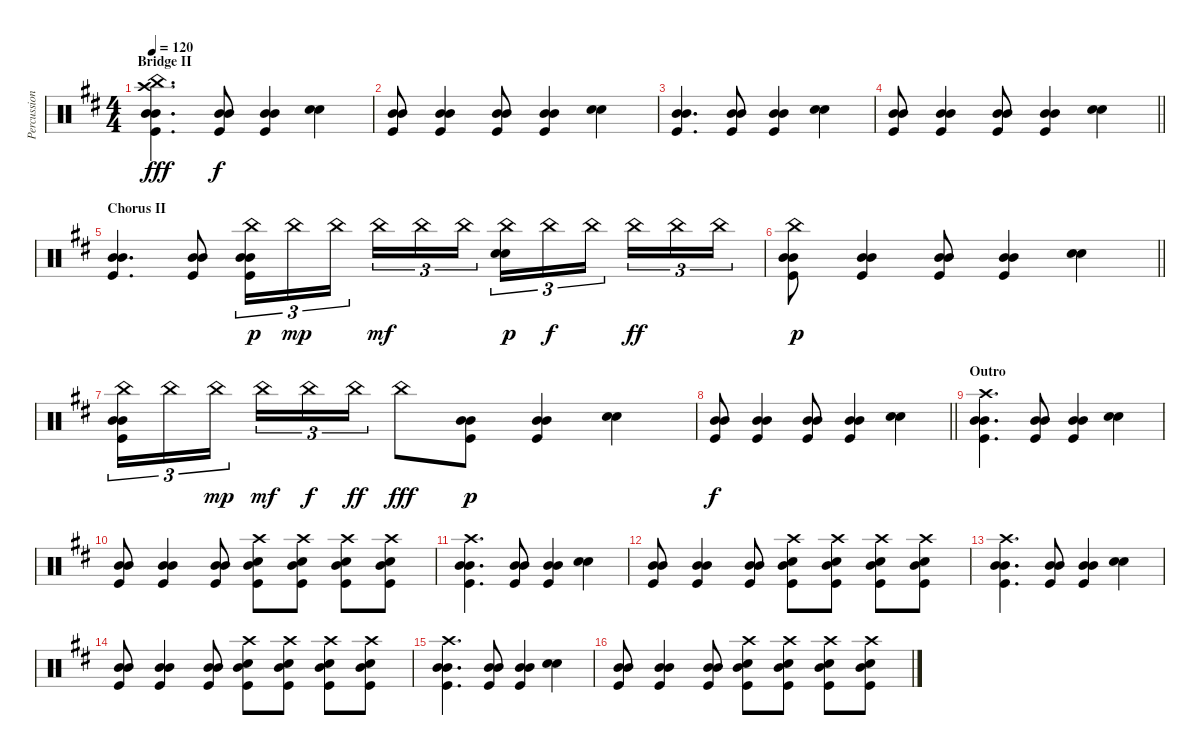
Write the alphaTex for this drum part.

\track ("Percussion" "Percussion") {instrument percussion}
\staff {score}
\articulation defaults
\ts (4 4)
\section ("" "Bridge II")
\tempo 120
\clef neutral
\ks bminor
("Crash high (hit)" "China (hit)" "Mid Tom (hit)" "Mid Tom (hit)" "Kick (hit)").4{d dy fff volume 8} ("Mid Tom (hit)" "Mid Tom (hit)" "Kick (hit)").8{dy f} ("Mid Tom (hit)" "Mid Tom (hit)" "Kick (hit)").4 ("Snare (hit) 2" "Snare (hit) 2").4 |
("Mid Tom (hit)" "Mid Tom (hit)" "Kick (hit)").8 ("Mid Tom (hit)" "Mid Tom (hit)" "Kick (hit)").4 ("Mid Tom (hit)" "Mid Tom (hit)" "Kick (hit)").8 ("Mid Tom (hit)" "Mid Tom (hit)" "Kick (hit)").4 ("Snare (hit) 2" "Snare (hit) 2").4 |
("Mid Tom (hit)" "Mid Tom (hit)" "Kick (hit)").4{d} ("Mid Tom (hit)" "Mid Tom (hit)" "Kick (hit)").8 ("Mid Tom (hit)" "Mid Tom (hit)" "Kick (hit)").4 ("Snare (hit) 2" "Snare (hit) 2").4 |
\barLineRight lightlight
("Mid Tom (hit)" "Mid Tom (hit)" "Kick (hit)").8 ("Mid Tom (hit)" "Mid Tom (hit)" "Kick (hit)").4 ("Mid Tom (hit)" "Mid Tom (hit)" "Kick (hit)").8 ("Mid Tom (hit)" "Mid Tom (hit)" "Kick (hit)").4 ("Snare (hit) 2" "Snare (hit) 2").4 |
\section ("" "Chorus II")
("Mid Tom (hit)" "Mid Tom (hit)" "Kick (hit)").4{d} ("Mid Tom (hit)" "Mid Tom (hit)" "Kick (hit)").8 ("China (hit)" "Mid Tom (hit)" "Mid Tom (hit)" "Kick (hit)").16{tu (3 2) dy p volume 15} "China (hit)".16{tu (3 2) dy mp} "China (hit)".16{tu (3 2) beam splitsecondary} "China (hit)".16{tu (3 2) dy mf} "China (hit)".16{tu (3 2)} "China (hit)".16{tu (3 2)} ("China (hit)" "Snare (hit) 2" "Snare (hit) 2").16{tu (3 2) dy p} "China (hit)".16{tu (3 2) dy f} "China (hit)".16{tu (3 2) beam splitsecondary} "China (hit)".16{tu (3 2) dy ff} "China (hit)".16{tu (3 2)} "China (hit)".16{tu (3 2)} |
\barLineRight lightlight
("China (hit)" "Mid Tom (hit)" "Mid Tom (hit)" "Kick (hit)").8{dy p} ("Mid Tom (hit)" "Mid Tom (hit)" "Kick (hit)").4 ("Mid Tom (hit)" "Mid Tom (hit)" "Kick (hit)").8 ("Mid Tom (hit)" "Mid Tom (hit)" "Kick (hit)").4 ("Snare (hit) 2" "Snare (hit) 2").4 |
("China (hit)" "Mid Tom (hit)" "Mid Tom (hit)" "Kick (hit)").16{tu (3 2) volume 16} "China (hit)".16{tu (3 2)} "China (hit)".16{tu (3 2) dy mp beam splitsecondary} "China (hit)".16{tu (3 2) dy mf} "China (hit)".16{tu (3 2) dy f} "China (hit)".16{tu (3 2) dy ff} "China (hit)".8{dy fff} ("Mid Tom (hit)" "Mid Tom (hit)" "Kick (hit)").8{dy p} ("Mid Tom (hit)" "Mid Tom (hit)" "Kick (hit)").4 ("Snare (hit) 2" "Snare (hit) 2").4 |
\barLineRight lightlight
("Mid Tom (hit)" "Mid Tom (hit)" "Kick (hit)").8{dy f volume 8} ("Mid Tom (hit)" "Mid Tom (hit)" "Kick (hit)").4 ("Mid Tom (hit)" "Mid Tom (hit)" "Kick (hit)").8 ("Mid Tom (hit)" "Mid Tom (hit)" "Kick (hit)").4 ("Snare (hit) 2" "Snare (hit) 2").4 |
\section ("" "Outro")
("Crash high (hit)" "Mid Tom (hit)" "Mid Tom (hit)" "Kick (hit)").4{d} ("Mid Tom (hit)" "Mid Tom (hit)" "Kick (hit)").8 ("Mid Tom (hit)" "Mid Tom (hit)" "Kick (hit)").4 ("Snare (hit) 2" "Snare (hit) 2").4 |
("Mid Tom (hit)" "Mid Tom (hit)" "Kick (hit)").8 ("Mid Tom (hit)" "Mid Tom (hit)" "Kick (hit)").4 ("Mid Tom (hit)" "Mid Tom (hit)" "Kick (hit)").8 ("Crash high (hit)" "Snare (hit) 2" "Mid Tom (hit)" "Kick (hit)").8 ("Crash high (hit)" "Snare (hit) 2" "Mid Tom (hit)" "Kick (hit)").8 ("Crash high (hit)" "Snare (hit) 2" "Mid Tom (hit)" "Kick (hit)").8 ("Crash high (hit)" "Snare (hit) 2" "Mid Tom (hit)" "Kick (hit)").8 |
("Crash high (hit)" "Mid Tom (hit)" "Mid Tom (hit)" "Kick (hit)").4{d} ("Mid Tom (hit)" "Mid Tom (hit)" "Kick (hit)").8 ("Mid Tom (hit)" "Mid Tom (hit)" "Kick (hit)").4 ("Snare (hit) 2" "Snare (hit) 2").4 |
("Mid Tom (hit)" "Mid Tom (hit)" "Kick (hit)").8 ("Mid Tom (hit)" "Mid Tom (hit)" "Kick (hit)").4 ("Mid Tom (hit)" "Mid Tom (hit)" "Kick (hit)").8 ("Crash high (hit)" "Snare (hit) 2" "Mid Tom (hit)" "Kick (hit)").8 ("Crash high (hit)" "Snare (hit) 2" "Mid Tom (hit)" "Kick (hit)").8 ("Crash high (hit)" "Snare (hit) 2" "Mid Tom (hit)" "Kick (hit)").8 ("Crash high (hit)" "Snare (hit) 2" "Mid Tom (hit)" "Kick (hit)").8 |
("Crash high (hit)" "Mid Tom (hit)" "Mid Tom (hit)" "Kick (hit)").4{d} ("Mid Tom (hit)" "Mid Tom (hit)" "Kick (hit)").8 ("Mid Tom (hit)" "Mid Tom (hit)" "Kick (hit)").4 ("Snare (hit) 2" "Snare (hit) 2").4 |
("Mid Tom (hit)" "Mid Tom (hit)" "Kick (hit)").8 ("Mid Tom (hit)" "Mid Tom (hit)" "Kick (hit)").4 ("Mid Tom (hit)" "Mid Tom (hit)" "Kick (hit)").8 ("Crash high (hit)" "Snare (hit) 2" "Mid Tom (hit)" "Kick (hit)").8 ("Crash high (hit)" "Snare (hit) 2" "Mid Tom (hit)" "Kick (hit)").8 ("Crash high (hit)" "Snare (hit) 2" "Mid Tom (hit)" "Kick (hit)").8 ("Crash high (hit)" "Snare (hit) 2" "Mid Tom (hit)" "Kick (hit)").8 |
("Crash high (hit)" "Mid Tom (hit)" "Mid Tom (hit)" "Kick (hit)").4{d} ("Mid Tom (hit)" "Mid Tom (hit)" "Kick (hit)").8 ("Mid Tom (hit)" "Mid Tom (hit)" "Kick (hit)").4 ("Snare (hit) 2" "Snare (hit) 2").4 |
("Mid Tom (hit)" "Mid Tom (hit)" "Kick (hit)").8 ("Mid Tom (hit)" "Mid Tom (hit)" "Kick (hit)").4 ("Mid Tom (hit)" "Mid Tom (hit)" "Kick (hit)").8 ("Crash high (hit)" "Snare (hit) 2" "Mid Tom (hit)" "Kick (hit)").8 ("Crash high (hit)" "Snare (hit) 2" "Mid Tom (hit)" "Kick (hit)").8 ("Crash high (hit)" "Snare (hit) 2" "Mid Tom (hit)" "Kick (hit)").8 ("Crash high (hit)" "Snare (hit) 2" "Mid Tom (hit)" "Kick (hit)").8
